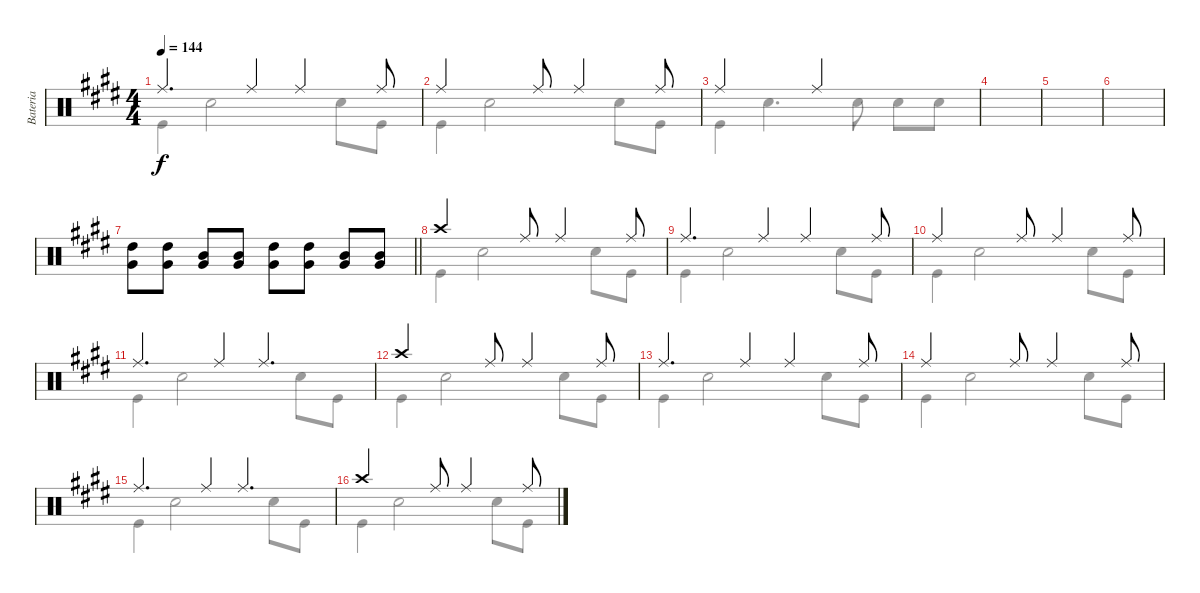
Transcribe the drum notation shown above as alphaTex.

\track ("Bateria" "Bateria") {instrument percussion}
\staff {score}
\articulation defaults
\voice
\ts (4 4)
\tempo 144
\clef neutral
\ks e "Ride (middle)".4{d dy f} "Ride (middle)".4 "Ride (middle)".4 "Ride (middle)".8
|
"Ride (middle)".2 "Ride (middle)".8 "Ride (middle)".4 "Ride (middle)".8 |
"Ride (middle)".2 "Ride (middle)".2 |
|
|
|
\barLineRight lightlight
("Very Low Tom (hit)" "High Tom (hit)").8 ("Very Low Tom (hit)" "High Tom (hit)").8 ("Very Low Tom (hit)" "Mid Tom (hit)").8 ("Very Low Tom (hit)" "Mid Tom (hit)").8 ("Very Low Tom (hit)" "High Tom (hit)").8 ("Very Low Tom (hit)" "High Tom (hit)").8 ("Very Low Tom (hit)" "Mid Tom (hit)").8 ("Very Low Tom (hit)" "Mid Tom (hit)").8 |
"Crash high (hit)".2 "Ride (middle)".8 "Ride (middle)".4 "Ride (middle)".8 |
"Ride (middle)".4{d} "Ride (middle)".4 "Ride (middle)".4 "Ride (middle)".8 |
"Ride (middle)".2 "Ride (middle)".8 "Ride (middle)".4 "Ride (middle)".8 |
"Ride (middle)".4{d} "Ride (middle)".4 "Ride (middle)".4{d} |
"Crash high (hit)".2 "Ride (middle)".8 "Ride (middle)".4 "Ride (middle)".8 |
"Ride (middle)".4{d} "Ride (middle)".4 "Ride (middle)".4 "Ride (middle)".8 |
"Ride (middle)".2 "Ride (middle)".8 "Ride (middle)".4 "Ride (middle)".8 |
"Ride (middle)".4{d} "Ride (middle)".4 "Ride (middle)".4{d} |
"Crash high (hit)".2 "Ride (middle)".8 "Ride (middle)".4 "Ride (middle)".8
\voice
\clef neutral
\ottava regular
\simile none
\ks e "Kick (hit)".4{dy f} "Snare (hit) 2".2 "Snare (hit) 2".8 "Kick (hit)".8
|
"Kick (hit)".4 "Snare (hit) 2".2 "Snare (hit) 2".8 "Kick (hit)".8 |
"Kick (hit)".4 "Snare (hit) 2".4{d} "Snare (hit) 2".8 "Snare (hit) 2".8 "Snare (hit) 2".8 |
|
|
|
\barLineRight lightlight
|
"Kick (hit)".4 "Snare (hit) 2".2 "Snare (hit) 2".8 "Kick (hit)".8 |
"Kick (hit)".4 "Snare (hit) 2".2 "Snare (hit) 2".8 "Kick (hit)".8 |
"Kick (hit)".4 "Snare (hit) 2".2 "Snare (hit) 2".8 "Kick (hit)".8 |
"Kick (hit)".4 "Snare (hit) 2".2 "Snare (hit) 2".8 "Kick (hit)".8 |
"Kick (hit)".4 "Snare (hit) 2".2 "Snare (hit) 2".8 "Kick (hit)".8 |
"Kick (hit)".4 "Snare (hit) 2".2 "Snare (hit) 2".8 "Kick (hit)".8 |
"Kick (hit)".4 "Snare (hit) 2".2 "Snare (hit) 2".8 "Kick (hit)".8 |
"Kick (hit)".4 "Snare (hit) 2".2 "Snare (hit) 2".8 "Kick (hit)".8 |
"Kick (hit)".4 "Snare (hit) 2".2 "Snare (hit) 2".8 "Kick (hit)".8
